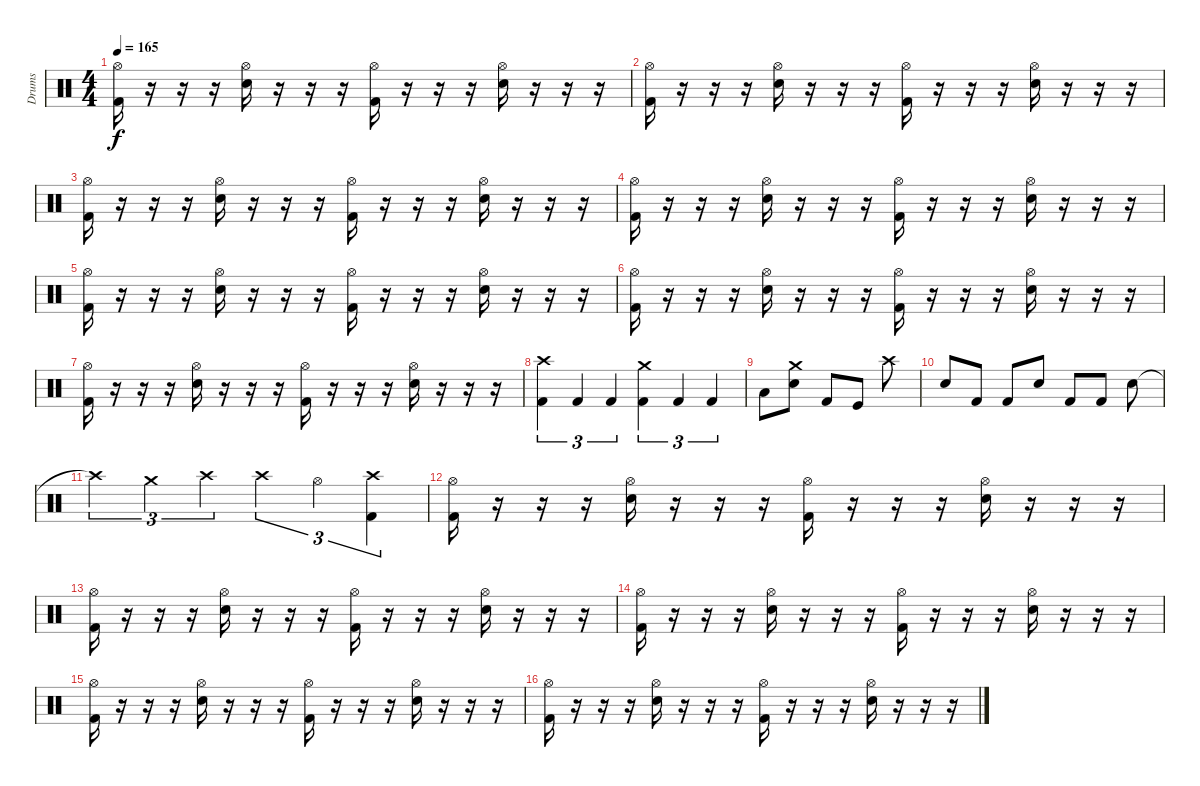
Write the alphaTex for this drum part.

\track ("Drums" "Drums") {instrument percussion}
\staff {score}
\articulation defaults
\ts (4 4)
\tempo 165
\clef neutral
\ks c
("Hi-Hat (open)" "Kick (hit) 2").16{dy f} r.16 r.16 r.16 ("Hi-Hat (open)" "Electric Snare (hit)").16 r.16 r.16 r.16 ("Hi-Hat (open)" "Kick (hit) 2").16 r.16 r.16 r.16 ("Hi-Hat (open)" "Electric Snare (hit)").16 r.16 r.16 r.16 |
("Hi-Hat (open)" "Kick (hit) 2").16 r.16 r.16 r.16 ("Hi-Hat (open)" "Electric Snare (hit)").16 r.16 r.16 r.16 ("Hi-Hat (open)" "Kick (hit) 2").16 r.16 r.16 r.16 ("Hi-Hat (open)" "Electric Snare (hit)").16 r.16 r.16 r.16 |
("Hi-Hat (open)" "Kick (hit) 2").16 r.16 r.16 r.16 ("Hi-Hat (open)" "Electric Snare (hit)").16 r.16 r.16 r.16 ("Hi-Hat (open)" "Kick (hit) 2").16 r.16 r.16 r.16 ("Hi-Hat (open)" "Electric Snare (hit)").16 r.16 r.16 r.16 |
("Hi-Hat (open)" "Kick (hit) 2").16 r.16 r.16 r.16 ("Hi-Hat (open)" "Electric Snare (hit)").16 r.16 r.16 r.16 ("Hi-Hat (open)" "Kick (hit) 2").16 r.16 r.16 r.16 ("Hi-Hat (open)" "Electric Snare (hit)").16 r.16 r.16 r.16 |
("Hi-Hat (open)" "Kick (hit) 2").16 r.16 r.16 r.16 ("Hi-Hat (open)" "Electric Snare (hit)").16 r.16 r.16 r.16 ("Hi-Hat (open)" "Kick (hit) 2").16 r.16 r.16 r.16 ("Hi-Hat (open)" "Electric Snare (hit)").16 r.16 r.16 r.16 |
("Hi-Hat (open)" "Kick (hit) 2").16 r.16 r.16 r.16 ("Hi-Hat (open)" "Electric Snare (hit)").16 r.16 r.16 r.16 ("Hi-Hat (open)" "Kick (hit) 2").16 r.16 r.16 r.16 ("Hi-Hat (open)" "Electric Snare (hit)").16 r.16 r.16 r.16 |
("Hi-Hat (open)" "Kick (hit) 2").16 r.16 r.16 r.16 ("Hi-Hat (open)" "Electric Snare (hit)").16 r.16 r.16 r.16 ("Hi-Hat (open)" "Kick (hit) 2").16 r.16 r.16 r.16 ("Hi-Hat (open)" "Electric Snare (hit)").16 r.16 r.16 r.16 |
("Crash high (hit)" "Kick (hit) 2").4{tu (3 2)} "Kick (hit) 2".4{tu (3 2)} "Kick (hit) 2".4{tu (3 2)} ("Crash medium (hit)" "Kick (hit) 2").4{tu (3 2)} "Kick (hit) 2".4{tu (3 2)} "Kick (hit) 2".4{tu (3 2)} |
"Low Tom (hit)".8 ("Crash medium (hit)" "Electric Snare (hit)").8 "Kick (hit) 2".8 "Kick (hit)".8 "Crash high (hit)".8 |
"Electric Snare (hit)".8 "Kick (hit) 2".8 "Kick (hit) 2".8 "Electric Snare (hit)".8 "Kick (hit) 2".8 "Kick (hit) 2".8 "Electric Snare (hit)".8 |
"Crash high (hit)"{t}.4{tu (3 2)} "Crash medium (hit)".4{tu (3 2)} "Crash high (hit)".4{tu (3 2)} "Crash high (hit)".4{tu (3 2)} "Hi-Hat (open)".4{tu (3 2)} ("Crash high (hit)" "Kick (hit) 2").4{tu (3 2)} |
("Hi-Hat (open)" "Kick (hit) 2").16 r.16 r.16 r.16 ("Hi-Hat (open)" "Electric Snare (hit)").16 r.16 r.16 r.16 ("Hi-Hat (open)" "Kick (hit) 2").16 r.16 r.16 r.16 ("Hi-Hat (open)" "Electric Snare (hit)").16 r.16 r.16 r.16 |
("Hi-Hat (open)" "Kick (hit) 2").16 r.16 r.16 r.16 ("Hi-Hat (open)" "Electric Snare (hit)").16 r.16 r.16 r.16 ("Hi-Hat (open)" "Kick (hit) 2").16 r.16 r.16 r.16 ("Hi-Hat (open)" "Electric Snare (hit)").16 r.16 r.16 r.16 |
("Hi-Hat (open)" "Kick (hit) 2").16 r.16 r.16 r.16 ("Hi-Hat (open)" "Electric Snare (hit)").16 r.16 r.16 r.16 ("Hi-Hat (open)" "Kick (hit) 2").16 r.16 r.16 r.16 ("Hi-Hat (open)" "Electric Snare (hit)").16 r.16 r.16 r.16 |
("Hi-Hat (open)" "Kick (hit) 2").16 r.16 r.16 r.16 ("Hi-Hat (open)" "Electric Snare (hit)").16 r.16 r.16 r.16 ("Hi-Hat (open)" "Kick (hit) 2").16 r.16 r.16 r.16 ("Hi-Hat (open)" "Electric Snare (hit)").16 r.16 r.16 r.16 |
("Hi-Hat (open)" "Kick (hit) 2").16 r.16 r.16 r.16 ("Hi-Hat (open)" "Electric Snare (hit)").16 r.16 r.16 r.16 ("Hi-Hat (open)" "Kick (hit) 2").16 r.16 r.16 r.16 ("Hi-Hat (open)" "Electric Snare (hit)").16 r.16 r.16 r.16
